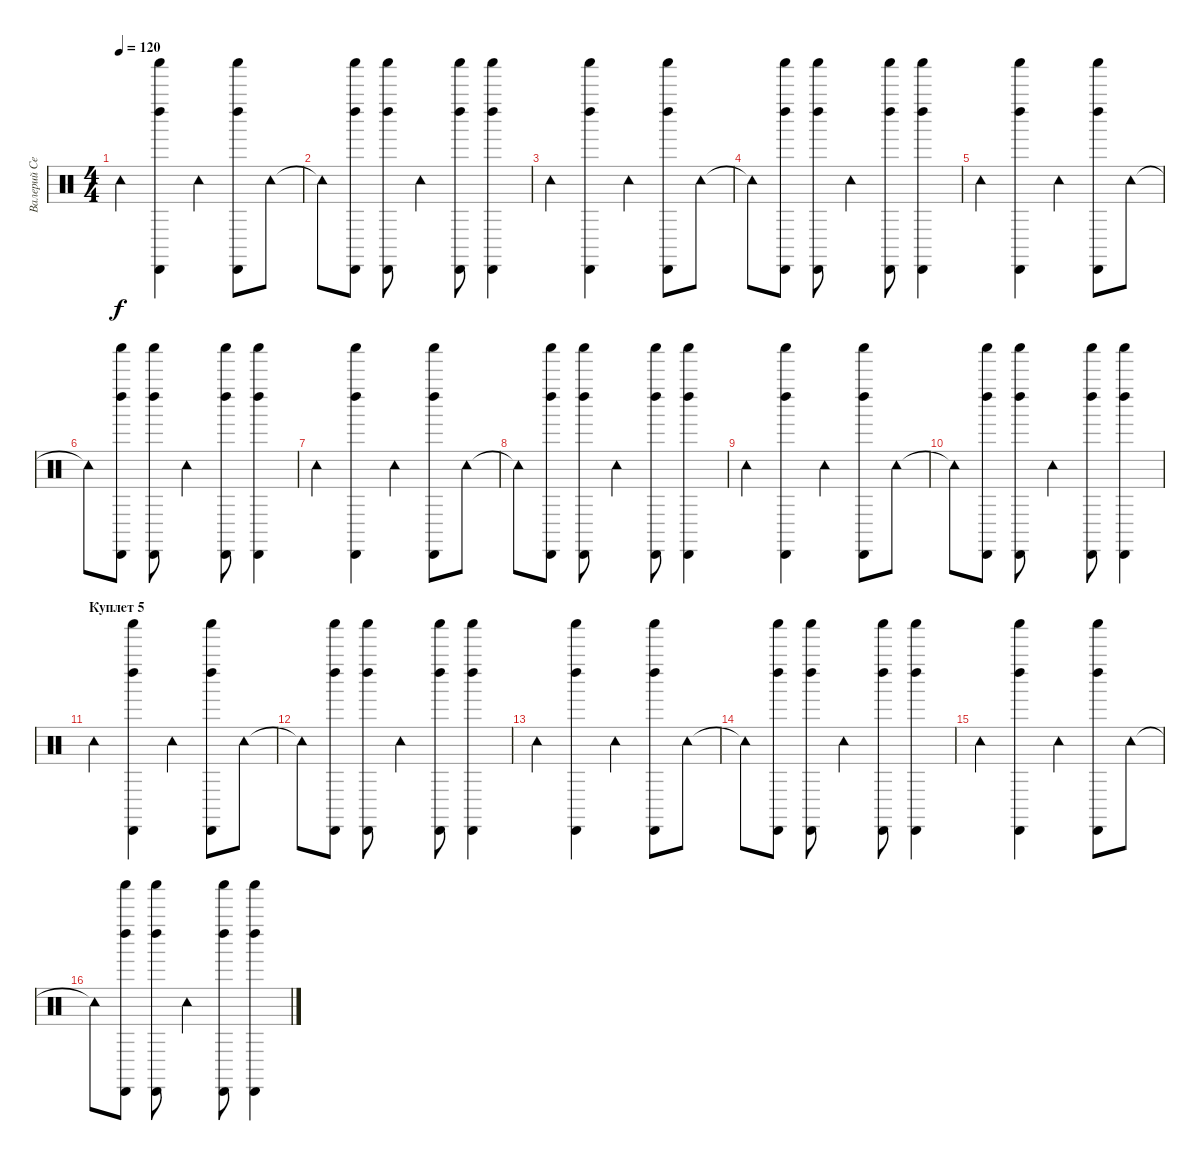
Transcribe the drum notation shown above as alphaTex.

\track ("Валерий Северин" "Валерий Се") {instrument percussion}
\staff {score}
\articulation defaults
\ts (4 4)
\tempo 120
\clef neutral
\ks c "Tambourine (hit)".4{dy f}
("Left Maraca (hit)" "Cabasa (hit)" "Shaker (hit)").4 "Tambourine (hit)".4 ("Left Maraca (hit)" "Cabasa (hit)" "Shaker (hit)").8 "Tambourine (hit)".8 |
"Tambourine (hit)"{t}.8 ("Left Maraca (hit)" "Cabasa (hit)" "Shaker (hit)").8 ("Left Maraca (hit)" "Cabasa (hit)" "Shaker (hit)").8 "Tambourine (hit)".4 ("Left Maraca (hit)" "Cabasa (hit)" "Shaker (hit)").8 ("Left Maraca (hit)" "Cabasa (hit)" "Shaker (hit)").4 |
"Tambourine (hit)".4 ("Left Maraca (hit)" "Cabasa (hit)" "Shaker (hit)").4 "Tambourine (hit)".4 ("Left Maraca (hit)" "Cabasa (hit)" "Shaker (hit)").8 "Tambourine (hit)".8 |
"Tambourine (hit)"{t}.8 ("Left Maraca (hit)" "Cabasa (hit)" "Shaker (hit)").8 ("Left Maraca (hit)" "Cabasa (hit)" "Shaker (hit)").8 "Tambourine (hit)".4 ("Left Maraca (hit)" "Cabasa (hit)" "Shaker (hit)").8 ("Left Maraca (hit)" "Cabasa (hit)" "Shaker (hit)").4 |
"Tambourine (hit)".4 ("Left Maraca (hit)" "Cabasa (hit)" "Shaker (hit)").4 "Tambourine (hit)".4 ("Left Maraca (hit)" "Cabasa (hit)" "Shaker (hit)").8 "Tambourine (hit)".8 |
"Tambourine (hit)"{t}.8 ("Left Maraca (hit)" "Cabasa (hit)" "Shaker (hit)").8 ("Left Maraca (hit)" "Cabasa (hit)" "Shaker (hit)").8 "Tambourine (hit)".4 ("Left Maraca (hit)" "Cabasa (hit)" "Shaker (hit)").8 ("Left Maraca (hit)" "Cabasa (hit)" "Shaker (hit)").4 |
"Tambourine (hit)".4 ("Left Maraca (hit)" "Cabasa (hit)" "Shaker (hit)").4 "Tambourine (hit)".4 ("Left Maraca (hit)" "Cabasa (hit)" "Shaker (hit)").8 "Tambourine (hit)".8 |
"Tambourine (hit)"{t}.8 ("Left Maraca (hit)" "Cabasa (hit)" "Shaker (hit)").8 ("Left Maraca (hit)" "Cabasa (hit)" "Shaker (hit)").8 "Tambourine (hit)".4 ("Left Maraca (hit)" "Cabasa (hit)" "Shaker (hit)").8 ("Left Maraca (hit)" "Cabasa (hit)" "Shaker (hit)").4 |
"Tambourine (hit)".4 ("Left Maraca (hit)" "Cabasa (hit)" "Shaker (hit)").4 "Tambourine (hit)".4 ("Left Maraca (hit)" "Cabasa (hit)" "Shaker (hit)").8 "Tambourine (hit)".8 |
"Tambourine (hit)"{t}.8 ("Left Maraca (hit)" "Cabasa (hit)" "Shaker (hit)").8 ("Left Maraca (hit)" "Cabasa (hit)" "Shaker (hit)").8 "Tambourine (hit)".4 ("Left Maraca (hit)" "Cabasa (hit)" "Shaker (hit)").8 ("Left Maraca (hit)" "Cabasa (hit)" "Shaker (hit)").4 |
\section ("" "Куплет 5")
"Tambourine (hit)".4 ("Left Maraca (hit)" "Cabasa (hit)" "Shaker (hit)").4 "Tambourine (hit)".4 ("Left Maraca (hit)" "Cabasa (hit)" "Shaker (hit)").8 "Tambourine (hit)".8 |
"Tambourine (hit)"{t}.8 ("Left Maraca (hit)" "Cabasa (hit)" "Shaker (hit)").8 ("Left Maraca (hit)" "Cabasa (hit)" "Shaker (hit)").8 "Tambourine (hit)".4 ("Left Maraca (hit)" "Cabasa (hit)" "Shaker (hit)").8 ("Left Maraca (hit)" "Cabasa (hit)" "Shaker (hit)").4 |
"Tambourine (hit)".4 ("Left Maraca (hit)" "Cabasa (hit)" "Shaker (hit)").4 "Tambourine (hit)".4 ("Left Maraca (hit)" "Cabasa (hit)" "Shaker (hit)").8 "Tambourine (hit)".8 |
"Tambourine (hit)"{t}.8 ("Left Maraca (hit)" "Cabasa (hit)" "Shaker (hit)").8 ("Left Maraca (hit)" "Cabasa (hit)" "Shaker (hit)").8 "Tambourine (hit)".4 ("Left Maraca (hit)" "Cabasa (hit)" "Shaker (hit)").8 ("Left Maraca (hit)" "Cabasa (hit)" "Shaker (hit)").4 |
"Tambourine (hit)".4 ("Left Maraca (hit)" "Cabasa (hit)" "Shaker (hit)").4 "Tambourine (hit)".4 ("Left Maraca (hit)" "Cabasa (hit)" "Shaker (hit)").8 "Tambourine (hit)".8 |
"Tambourine (hit)"{t}.8 ("Left Maraca (hit)" "Cabasa (hit)" "Shaker (hit)").8 ("Left Maraca (hit)" "Cabasa (hit)" "Shaker (hit)").8 "Tambourine (hit)".4 ("Left Maraca (hit)" "Cabasa (hit)" "Shaker (hit)").8 ("Left Maraca (hit)" "Cabasa (hit)" "Shaker (hit)").4
